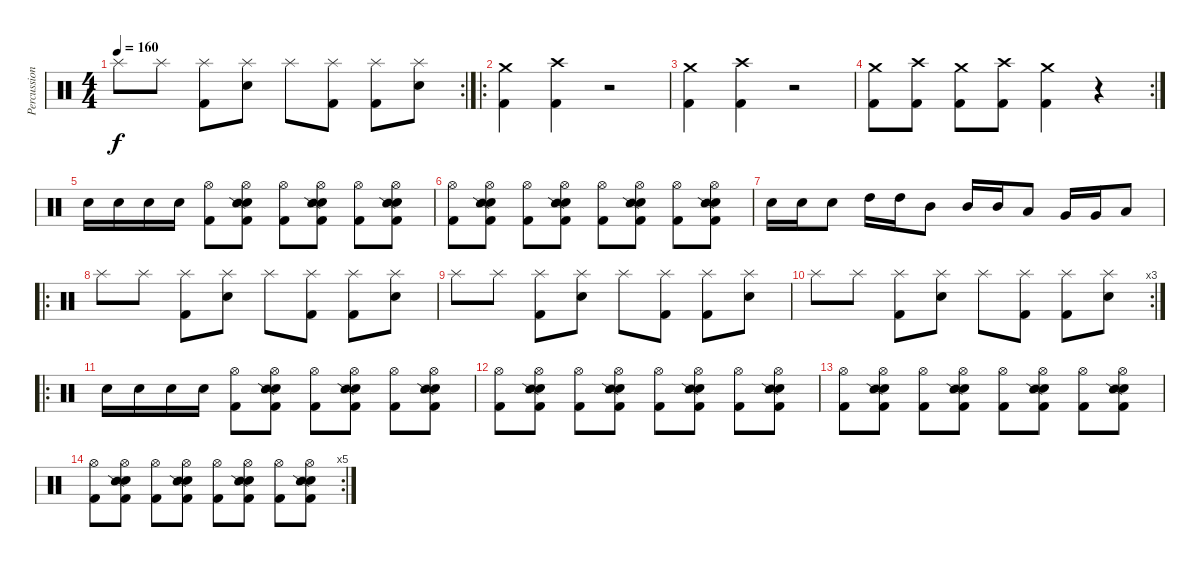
\track ("Percussion" "Percussion") {instrument percussion}
\staff {score}
\articulation defaults
\rc 2
\ts (4 4)
\tempo 160
\clef neutral
\ks c "Splash (hit)".8{dy f} "Splash (hit)".8
("Splash (hit)" "Kick (hit) 2").8 ("Splash (hit)" "Electric Snare (hit)").8 "Splash (hit)".8 ("Splash (hit)" "Kick (hit) 2").8 ("Splash (hit)" "Kick (hit) 2").8 ("Splash (hit)" "Electric Snare (hit)").8 |
\ro
("Crash medium (hit)" "Kick (hit) 2").4 ("Crash high (hit)" "Kick (hit) 2").4 r.2 |
("Crash medium (hit)" "Kick (hit) 2").4 ("Crash high (hit)" "Kick (hit) 2").4 r.2 |
\rc 2
("Crash medium (hit)" "Kick (hit) 2").8 ("Crash high (hit)" "Kick (hit) 2").8 ("Crash medium (hit)" "Kick (hit) 2").8 ("Crash high (hit)" "Kick (hit) 2").8 ("Crash medium (hit)" "Kick (hit) 2").4 r.4 |
"Electric Snare (hit)".16 "Electric Snare (hit)".16 "Electric Snare (hit)".16 "Electric Snare (hit)".16 ("Hi-Hat (open)" "Kick (hit) 2").8 ("Hi-Hat (open)" "Electric Snare (hit)" "Snare (side stick) 2" "Kick (hit) 2").8 ("Hi-Hat (open)" "Kick (hit) 2").8 ("Hi-Hat (open)" "Electric Snare (hit)" "Snare (side stick) 2" "Kick (hit) 2").8 ("Hi-Hat (open)" "Kick (hit) 2").8 ("Hi-Hat (open)" "Electric Snare (hit)" "Snare (side stick) 2" "Kick (hit) 2").8 |
("Hi-Hat (open)" "Kick (hit) 2").8 ("Hi-Hat (open)" "Electric Snare (hit)" "Snare (side stick) 2" "Kick (hit) 2").8 ("Hi-Hat (open)" "Kick (hit) 2").8 ("Hi-Hat (open)" "Electric Snare (hit)" "Snare (side stick) 2" "Kick (hit) 2").8 ("Hi-Hat (open)" "Kick (hit) 2").8 ("Hi-Hat (open)" "Electric Snare (hit)" "Snare (side stick) 2" "Kick (hit) 2").8 ("Hi-Hat (open)" "Kick (hit) 2").8 ("Hi-Hat (open)" "Electric Snare (hit)" "Snare (side stick) 2" "Kick (hit) 2").8 |
"Electric Snare (hit)".16 "Electric Snare (hit)".16 "Electric Snare (hit)".8 "High Tom (hit)".16 "High Tom (hit)".16 "Mid Tom (hit)".8 "Mid Tom (hit)".16 "Mid Tom (hit)".16 "Low Tom (hit)".8 "Very Low Tom (hit)".16 "Very Low Tom (hit)".16 "Low Floor Tom (hit)".8 |
\ro "Splash (hit)".8 "Splash (hit)".8
("Splash (hit)" "Kick (hit) 2").8 ("Splash (hit)" "Electric Snare (hit)").8 "Splash (hit)".8 ("Splash (hit)" "Kick (hit) 2").8 ("Splash (hit)" "Kick (hit) 2").8 ("Splash (hit)" "Electric Snare (hit)").8 |
"Splash (hit)".8 "Splash (hit)".8 ("Splash (hit)" "Kick (hit) 2").8 ("Splash (hit)" "Electric Snare (hit)").8 "Splash (hit)".8 ("Splash (hit)" "Kick (hit) 2").8 ("Splash (hit)" "Kick (hit) 2").8 ("Splash (hit)" "Electric Snare (hit)").8 |
\rc 3 "Splash (hit)".8 "Splash (hit)".8
("Splash (hit)" "Kick (hit) 2").8 ("Splash (hit)" "Electric Snare (hit)").8 "Splash (hit)".8 ("Splash (hit)" "Kick (hit) 2").8 ("Splash (hit)" "Kick (hit) 2").8 ("Splash (hit)" "Electric Snare (hit)").8 |
\ro "Electric Snare (hit)".16 "Electric Snare (hit)".16 "Electric Snare (hit)".16 "Electric Snare (hit)".16
("Hi-Hat (open)" "Kick (hit) 2").8 ("Hi-Hat (open)" "Electric Snare (hit)" "Snare (side stick) 2" "Kick (hit) 2").8 ("Hi-Hat (open)" "Kick (hit) 2").8 ("Hi-Hat (open)" "Electric Snare (hit)" "Snare (side stick) 2" "Kick (hit) 2").8 ("Hi-Hat (open)" "Kick (hit) 2").8 ("Hi-Hat (open)" "Electric Snare (hit)" "Snare (side stick) 2" "Kick (hit) 2").8 |
("Hi-Hat (open)" "Kick (hit) 2").8 ("Hi-Hat (open)" "Electric Snare (hit)" "Snare (side stick) 2" "Kick (hit) 2").8 ("Hi-Hat (open)" "Kick (hit) 2").8 ("Hi-Hat (open)" "Electric Snare (hit)" "Snare (side stick) 2" "Kick (hit) 2").8 ("Hi-Hat (open)" "Kick (hit) 2").8 ("Hi-Hat (open)" "Electric Snare (hit)" "Snare (side stick) 2" "Kick (hit) 2").8 ("Hi-Hat (open)" "Kick (hit) 2").8 ("Hi-Hat (open)" "Electric Snare (hit)" "Snare (side stick) 2" "Kick (hit) 2").8 |
("Hi-Hat (open)" "Kick (hit) 2").8 ("Hi-Hat (open)" "Electric Snare (hit)" "Snare (side stick) 2" "Kick (hit) 2").8 ("Hi-Hat (open)" "Kick (hit) 2").8 ("Hi-Hat (open)" "Electric Snare (hit)" "Snare (side stick) 2" "Kick (hit) 2").8 ("Hi-Hat (open)" "Kick (hit) 2").8 ("Hi-Hat (open)" "Electric Snare (hit)" "Snare (side stick) 2" "Kick (hit) 2").8 ("Hi-Hat (open)" "Kick (hit) 2").8 ("Hi-Hat (open)" "Electric Snare (hit)" "Snare (side stick) 2" "Kick (hit) 2").8 |
\rc 5
("Hi-Hat (open)" "Kick (hit) 2").8 ("Hi-Hat (open)" "Electric Snare (hit)" "Snare (side stick) 2" "Kick (hit) 2").8 ("Hi-Hat (open)" "Kick (hit) 2").8 ("Hi-Hat (open)" "Electric Snare (hit)" "Snare (side stick) 2" "Kick (hit) 2").8 ("Hi-Hat (open)" "Kick (hit) 2").8 ("Hi-Hat (open)" "Electric Snare (hit)" "Snare (side stick) 2" "Kick (hit) 2").8 ("Hi-Hat (open)" "Kick (hit) 2").8 ("Hi-Hat (open)" "Electric Snare (hit)" "Snare (side stick) 2" "Kick (hit) 2").8
